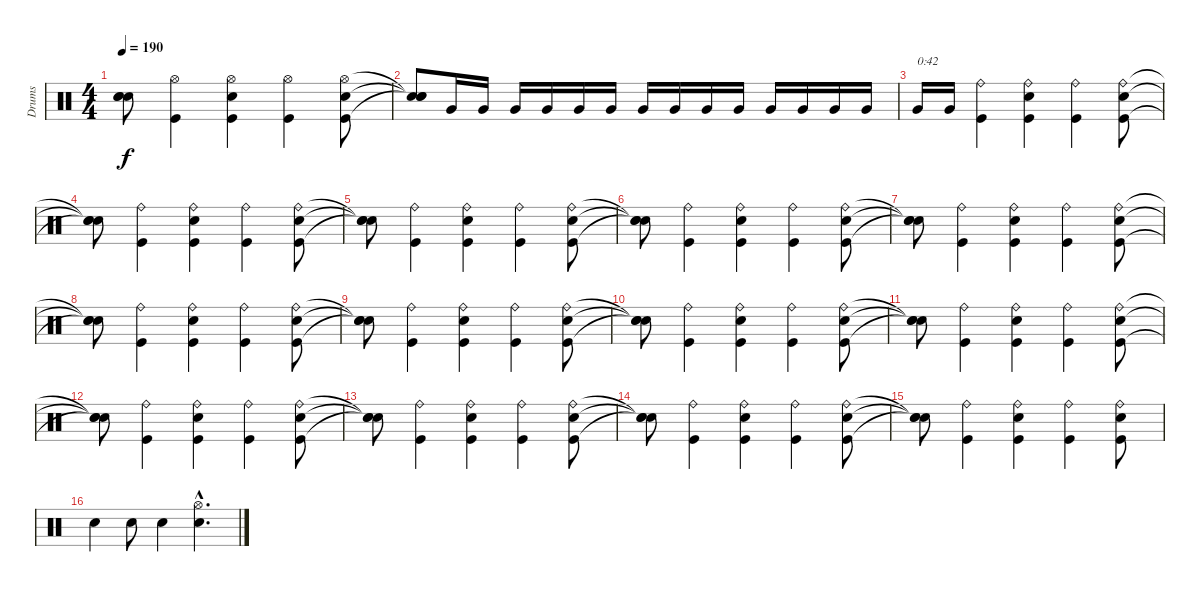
\track ("Drums" "Drums") {instrument percussion}
\staff {score}
\articulation defaults
\ts (4 4)
\tempo 190
\clef neutral
\ks c
("Snare (hit)"{t} "Snare (hit)"{t} "Snare (hit)"{t}).8{dy f} ("Kick (hit)" "Hi-Hat (open)").4 ("Kick (hit)" "Snare (hit) 2" "Hi-Hat (open)").4 ("Kick (hit)" "Hi-Hat (open)").4 ("Kick (hit)" "Snare (hit) 2" "Hi-Hat (open)").8 |
("Snare (hit)"{t} "Snare (hit)"{t} "Snare (hit)"{t}).8 "Very Low Tom (hit)".16 "Very Low Tom (hit)".16 "Very Low Tom (hit)".16 "Very Low Tom (hit)".16 "Very Low Tom (hit)".16 "Very Low Tom (hit)".16 "Very Low Tom (hit)".16 "Very Low Tom (hit)".16 "Very Low Tom (hit)".16 "Very Low Tom (hit)".16 "Very Low Tom (hit)".16 "Very Low Tom (hit)".16 "Very Low Tom (hit)".16 "Very Low Tom (hit)".16 |
"Very Low Tom (hit)".16{txt "0:42"} "Very Low Tom (hit)".16 ("Kick (hit)" "Ride (bell)").4 ("Kick (hit)" "Snare (hit) 2" "Ride (bell)").4 ("Kick (hit)" "Ride (bell)").4 ("Kick (hit)" "Snare (hit) 2" "Ride (bell)").8 |
("Snare (hit)"{t} "Snare (hit)"{t} "Snare (hit)"{t}).8 ("Kick (hit)" "Ride (bell)").4 ("Kick (hit)" "Snare (hit) 2" "Ride (bell)").4 ("Kick (hit)" "Ride (bell)").4 ("Kick (hit)" "Snare (hit) 2" "Ride (bell)").8 |
("Snare (hit)"{t} "Snare (hit)"{t} "Snare (hit)"{t}).8 ("Kick (hit)" "Ride (bell)").4 ("Kick (hit)" "Snare (hit) 2" "Ride (bell)").4 ("Kick (hit)" "Ride (bell)").4 ("Kick (hit)" "Snare (hit) 2" "Ride (bell)").8 |
("Snare (hit)"{t} "Snare (hit)"{t} "Snare (hit)"{t}).8 ("Kick (hit)" "Ride (bell)").4 ("Kick (hit)" "Snare (hit) 2" "Ride (bell)").4 ("Kick (hit)" "Ride (bell)").4 ("Kick (hit)" "Snare (hit) 2" "Ride (bell)").8 |
("Snare (hit)"{t} "Snare (hit)"{t} "Snare (hit)"{t}).8 ("Kick (hit)" "Ride (bell)").4 ("Kick (hit)" "Snare (hit) 2" "Ride (bell)").4 ("Kick (hit)" "Ride (bell)").4 ("Kick (hit)" "Snare (hit) 2" "Ride (bell)").8 |
("Snare (hit)"{t} "Snare (hit)"{t} "Snare (hit)"{t}).8 ("Kick (hit)" "Ride (bell)").4 ("Kick (hit)" "Snare (hit) 2" "Ride (bell)").4 ("Kick (hit)" "Ride (bell)").4 ("Kick (hit)" "Snare (hit) 2" "Ride (bell)").8 |
("Snare (hit)"{t} "Snare (hit)"{t} "Snare (hit)"{t}).8 ("Kick (hit)" "Ride (bell)").4 ("Kick (hit)" "Snare (hit) 2" "Ride (bell)").4 ("Kick (hit)" "Ride (bell)").4 ("Kick (hit)" "Snare (hit) 2" "Ride (bell)").8 |
("Snare (hit)"{t} "Snare (hit)"{t} "Snare (hit)"{t}).8 ("Kick (hit)" "Ride (bell)").4 ("Kick (hit)" "Snare (hit) 2" "Ride (bell)").4 ("Kick (hit)" "Ride (bell)").4 ("Kick (hit)" "Snare (hit) 2" "Ride (bell)").8 |
("Snare (hit)"{t} "Snare (hit)"{t} "Snare (hit)"{t}).8 ("Kick (hit)" "Ride (bell)").4 ("Kick (hit)" "Snare (hit) 2" "Ride (bell)").4 ("Kick (hit)" "Ride (bell)").4 ("Kick (hit)" "Snare (hit) 2" "Ride (bell)").8 |
("Snare (hit)"{t} "Snare (hit)"{t} "Snare (hit)"{t}).8 ("Kick (hit)" "Ride (bell)").4 ("Kick (hit)" "Snare (hit) 2" "Ride (bell)").4 ("Kick (hit)" "Ride (bell)").4 ("Kick (hit)" "Snare (hit) 2" "Ride (bell)").8 |
("Snare (hit)"{t} "Snare (hit)"{t} "Snare (hit)"{t}).8 ("Kick (hit)" "Ride (bell)").4 ("Kick (hit)" "Snare (hit) 2" "Ride (bell)").4 ("Kick (hit)" "Ride (bell)").4 ("Kick (hit)" "Snare (hit) 2" "Ride (bell)").8 |
("Snare (hit)"{t} "Snare (hit)"{t} "Snare (hit)"{t}).8 ("Kick (hit)" "Ride (bell)").4 ("Kick (hit)" "Snare (hit) 2" "Ride (bell)").4 ("Kick (hit)" "Ride (bell)").4 ("Kick (hit)" "Snare (hit) 2" "Ride (bell)").8 |
("Snare (hit)"{t} "Snare (hit)"{t} "Snare (hit)"{t}).8 ("Kick (hit)" "Ride (bell)").4 ("Kick (hit)" "Snare (hit) 2" "Ride (bell)").4 ("Kick (hit)" "Ride (bell)").4 ("Kick (hit)" "Snare (hit) 2" "Ride (bell)").8 |
"Snare (hit) 2".4 "Snare (hit) 2".8 "Snare (hit) 2".4 ("Snare (hit) 2"{hac} "Hi-Hat (open)"{hac}).4{d}
